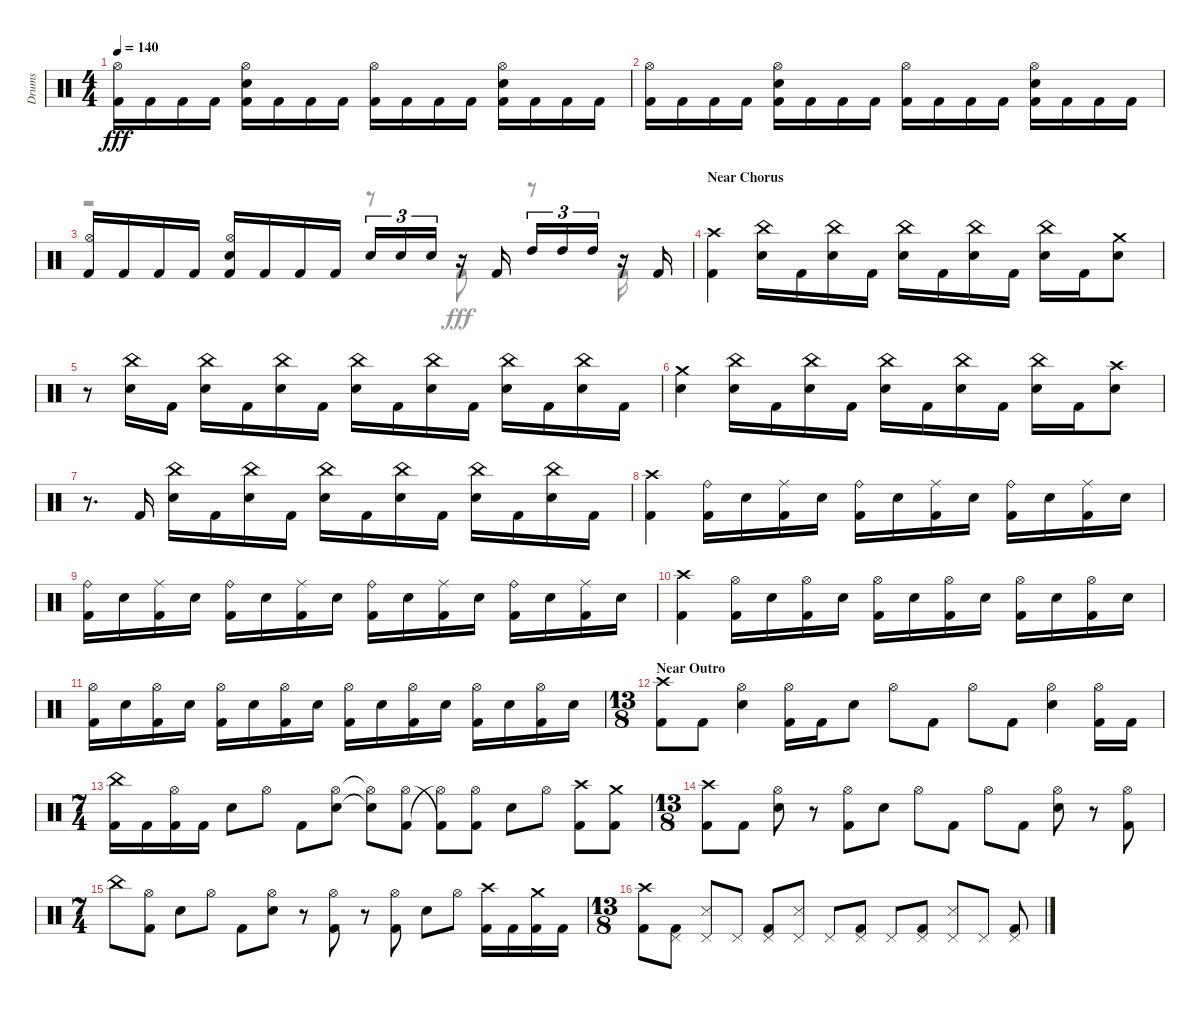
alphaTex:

\track ("Drums" "Drums") {instrument percussion}
\staff {score}
\articulation defaults
\voice
\ts (4 4)
\tempo 140
\clef neutral
\ks aminor
("Hi-Hat (open)" "Kick (hit) 2").16{dy fff} "Kick (hit) 2".16 "Kick (hit) 2".16 "Kick (hit) 2".16 ("Hi-Hat (open)" "Snare (hit) 2" "Kick (hit) 2").16 "Kick (hit) 2".16 "Kick (hit) 2".16 "Kick (hit) 2".16 ("Kick (hit) 2" "Hi-Hat (open)").16 "Kick (hit) 2".16 "Kick (hit) 2".16 "Kick (hit) 2".16 ("Kick (hit) 2" "Snare (hit) 2" "Hi-Hat (open)").16 "Kick (hit) 2".16 "Kick (hit) 2".16 "Kick (hit) 2".16 |
("Kick (hit) 2" "Hi-Hat (open)").16 "Kick (hit) 2".16 "Kick (hit) 2".16 "Kick (hit) 2".16 ("Hi-Hat (open)" "Kick (hit) 2" "Snare (hit) 2").16 "Kick (hit) 2".16 "Kick (hit) 2".16 "Kick (hit) 2".16 ("Hi-Hat (open)" "Kick (hit) 2").16 "Kick (hit) 2".16 "Kick (hit) 2".16 "Kick (hit) 2".16 ("Kick (hit) 2" "Snare (hit) 2" "Hi-Hat (open)").16 "Kick (hit) 2".16 "Kick (hit) 2".16 "Kick (hit) 2".16 |
("Hi-Hat (open)" "Kick (hit) 2").16 "Kick (hit) 2".16 "Kick (hit) 2".16 "Kick (hit) 2".16 ("Kick (hit) 2" "Snare (hit) 2" "Hi-Hat (open)").16 "Kick (hit) 2".16 "Kick (hit) 2".16 "Kick (hit) 2".16 "Snare (hit) 2".16{tu (3 2)} "Snare (hit) 2".16{tu (3 2)} "Snare (hit) 2".16{tu (3 2)} r.16 "Kick (hit) 2".16 "High Tom (hit)".16{tu (3 2)} "High Tom (hit)".16{tu (3 2)} "High Tom (hit)".16{tu (3 2)} r.16 "Kick (hit) 2".16 |
\section ("" "Near Chorus")
("Crash high (hit)" "Kick (hit) 2").4 ("Snare (hit) 2" "China (hit)").16 "Kick (hit) 2".16 ("Snare (hit) 2" "China (hit)").16 "Kick (hit) 2".16 ("China (hit)" "Snare (hit) 2").16 "Kick (hit) 2".16 ("Snare (hit) 2" "China (hit)").16 "Kick (hit) 2".16 ("Snare (hit) 2" "China (hit)").16 "Kick (hit) 2".16 ("Crash medium (hit)" "Snare (hit) 2").8 |
r.8 ("Snare (hit) 2" "China (hit)").16 "Kick (hit) 2".16 ("China (hit)" "Snare (hit) 2").16 "Kick (hit) 2".16 ("China (hit)" "Snare (hit) 2").16 "Kick (hit) 2".16 ("China (hit)" "Snare (hit) 2").16 "Kick (hit) 2".16 ("Snare (hit) 2" "China (hit)").16 "Kick (hit) 2".16 ("Snare (hit) 2" "China (hit)").16 "Kick (hit) 2".16 ("Snare (hit) 2" "China (hit)").16 "Kick (hit) 2".16 |
("Snare (hit) 2" "Crash medium (hit)").4 ("China (hit)" "Snare (hit) 2").16 "Kick (hit) 2".16 ("China (hit)" "Snare (hit) 2").16 "Kick (hit) 2".16 ("China (hit)" "Snare (hit) 2").16 "Kick (hit) 2".16 ("Snare (hit) 2" "China (hit)").16 "Kick (hit) 2".16 ("China (hit)" "Snare (hit) 2").16 "Kick (hit) 2".16 ("Crash high (hit)" "Snare (hit) 2").8 |
r.8{d} "Kick (hit) 2".16 ("Snare (hit) 2" "China (hit)").16 "Kick (hit) 2".16 ("Snare (hit) 2" "China (hit)").16 "Kick (hit) 2".16 ("Snare (hit) 2" "China (hit)").16 "Kick (hit) 2".16 ("China (hit)" "Snare (hit) 2").16 "Kick (hit) 2".16 ("China (hit)" "Snare (hit) 2").16 "Kick (hit) 2".16 ("Snare (hit) 2" "China (hit)").16 "Kick (hit) 2".16 |
("Kick (hit) 2" "Crash high (hit)").4 ("Ride (bell)" "Kick (hit) 2").16 "Snare (hit) 2".16 ("Kick (hit) 2" "Ride (middle)").16 "Snare (hit) 2".16 ("Ride (bell)" "Kick (hit) 2").16 "Snare (hit) 2".16 ("Kick (hit) 2" "Ride (middle)").16 "Snare (hit) 2".16 ("Kick (hit) 2" "Ride (bell)").16 "Snare (hit) 2".16 ("Ride (middle)" "Kick (hit) 2").16 "Snare (hit) 2".16 |
("Kick (hit) 2" "Ride (bell)").16 "Snare (hit) 2".16 ("Ride (middle)" "Kick (hit) 2").16 "Snare (hit) 2".16 ("Kick (hit) 2" "Ride (bell)").16 "Snare (hit) 2".16 ("Ride (middle)" "Kick (hit) 2").16 "Snare (hit) 2".16 ("Ride (bell)" "Kick (hit) 2").16 "Snare (hit) 2".16 ("Ride (middle)" "Kick (hit) 2").16 "Snare (hit) 2".16 ("Ride (bell)" "Kick (hit) 2").16 "Snare (hit) 2".16 ("Kick (hit) 2" "Ride (middle)").16 "Snare (hit) 2".16 |
("Kick (hit) 2" "Crash high (hit)").4 ("Kick (hit) 2" "Hi-Hat (open)").16 "Snare (hit) 2".16 ("Hi-Hat (open)" "Kick (hit) 2").16 "Snare (hit) 2".16 ("Kick (hit) 2" "Hi-Hat (open)").16 "Snare (hit) 2".16 ("Hi-Hat (open)" "Kick (hit) 2").16 "Snare (hit) 2".16 ("Kick (hit) 2" "Hi-Hat (open)").16 "Snare (hit) 2".16 ("Kick (hit) 2" "Hi-Hat (open)").16 "Snare (hit) 2".16 |
("Kick (hit) 2" "Hi-Hat (open)").16 "Snare (hit) 2".16 ("Hi-Hat (open)" "Kick (hit) 2").16 "Snare (hit) 2".16 ("Hi-Hat (open)" "Kick (hit) 2").16 "Snare (hit) 2".16 ("Kick (hit) 2" "Hi-Hat (open)").16 "Snare (hit) 2".16 ("Kick (hit) 2" "Hi-Hat (open)").16 "Snare (hit) 2".16 ("Kick (hit) 2" "Hi-Hat (open)").16 "Snare (hit) 2".16 ("Kick (hit) 2" "Hi-Hat (open)").16 "Snare (hit) 2".16 ("Hi-Hat (open)" "Kick (hit) 2").16 "Snare (hit) 2".16 |
\ts (13 8)
\section ("" "Near Outro")
("Kick (hit) 2" "Crash high (hit)").8 "Kick (hit) 2".8 ("Hi-Hat (open)" "Snare (hit) 2").4 ("Hi-Hat (open)" "Kick (hit) 2").16 "Kick (hit) 2".16 "Snare (hit) 2".8 "Hi-Hat (open)".8 "Kick (hit) 2".8 "Hi-Hat (open)".8 "Kick (hit) 2".8 ("Hi-Hat (open)" "Snare (hit) 2").4 ("Hi-Hat (open)" "Kick (hit) 2").16 "Kick (hit) 2".16 |
\ts (7 4)
("China (hit)" "Kick (hit) 2").16 "Kick (hit) 2".16 ("Kick (hit) 2" "Hi-Hat (open)").16 "Kick (hit) 2".16 "Snare (hit) 2".8 "Hi-Hat (open)".8 "Kick (hit) 2".8 ("Snare (hit) 2" "Hi-Hat (open)").8 ("Snare (hit) 2"{t} "Hi-Hat (open)"{t}).8 ("Kick (hit) 2" "Hi-Hat (open)").8 ("Hi-Hat (open)"{t} "Kick (hit) 2"{t}).8 ("Kick (hit) 2" "Hi-Hat (open)").8 "Snare (hit) 2".8 "Hi-Hat (open)".8 ("Crash high (hit)" "Kick (hit) 2").8 ("Kick (hit) 2" "Crash medium (hit)").8 |
\ts (13 8)
("Crash high (hit)" "Kick (hit) 2").8 "Kick (hit) 2".8 ("Snare (hit) 2" "Hi-Hat (open)").8 r.8 ("Hi-Hat (open)" "Kick (hit) 2").8 "Snare (hit) 2".8 "Hi-Hat (open)".8 "Kick (hit) 2".8 "Hi-Hat (open)".8 "Kick (hit) 2".8 ("Hi-Hat (open)" "Snare (hit) 2").8 r.8 ("Hi-Hat (open)" "Kick (hit) 2").8 |
\ts (7 4)
"China (hit)".8 ("Kick (hit) 2" "Hi-Hat (open)").8 "Snare (hit) 2".8 "Hi-Hat (open)".8 "Kick (hit) 2".8 ("Snare (hit) 2" "Hi-Hat (open)").8 r.8 ("Hi-Hat (open)" "Kick (hit) 2").8 r.8 ("Kick (hit) 2" "Hi-Hat (open)").8 "Snare (hit) 2".8 "Hi-Hat (open)".8 ("Kick (hit) 2" "Crash high (hit)").16 "Kick (hit) 2".16 ("Crash medium (hit)" "Kick (hit) 2").16 "Kick (hit) 2".16 |
\ts (13 8)
("Kick (hit) 2" "Crash high (hit)").8 ("Kick (hit) 2" "Pedal Hi-Hat (hit)").8 ("Pedal Hi-Hat (hit)" "Snare (side stick) 3").8 "Pedal Hi-Hat (hit)".8 ("Kick (hit) 2" "Pedal Hi-Hat (hit)").8 ("Pedal Hi-Hat (hit)" "Snare (side stick) 3").8 "Pedal Hi-Hat (hit)".8 ("Pedal Hi-Hat (hit)" "Kick (hit) 2").8 "Pedal Hi-Hat (hit)".8 ("Kick (hit) 2" "Pedal Hi-Hat (hit)").8 ("Snare (side stick) 3" "Pedal Hi-Hat (hit)").8 "Pedal Hi-Hat (hit)".8 ("Kick (hit) 2" "Pedal Hi-Hat (hit)").8
\voice
\clef neutral
\ottava regular
\simile none
\ks aminor
|
|
r.2 r.8 "Kick (hit) 2".8 r.8 "Kick (hit) 2".16 |
|
|
|
|
|
|
|
|
|
|
|
|
